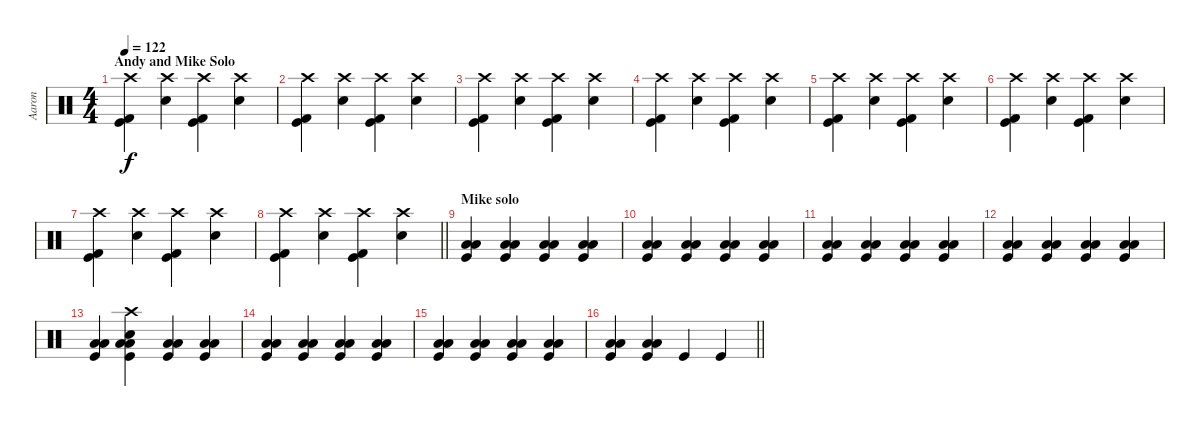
\track ("Aaron" "Aaron") {instrument percussion}
\staff {score}
\articulation defaults
\ts (4 4)
\section ("" "Andy and Mike Solo")
\tempo 122
\clef neutral
\ks c
("Crash high (hit)" "Kick (hit)" "Kick (hit) 2").4{dy f} ("Crash high (hit)" "Snare (hit) 2").4 ("Crash high (hit)" "Kick (hit)" "Kick (hit) 2").4 ("Crash high (hit)" "Snare (hit) 2").4 |
("Crash high (hit)" "Kick (hit)" "Kick (hit) 2").4 ("Crash high (hit)" "Snare (hit) 2").4 ("Crash high (hit)" "Kick (hit)" "Kick (hit) 2").4 ("Crash high (hit)" "Snare (hit) 2").4 |
("Crash high (hit)" "Kick (hit)" "Kick (hit) 2").4 ("Crash high (hit)" "Snare (hit) 2").4 ("Crash high (hit)" "Kick (hit)" "Kick (hit) 2").4 ("Crash high (hit)" "Snare (hit) 2").4 |
("Crash high (hit)" "Kick (hit)" "Kick (hit) 2").4 ("Crash high (hit)" "Snare (hit) 2").4 ("Crash high (hit)" "Kick (hit)" "Kick (hit) 2").4 ("Crash high (hit)" "Snare (hit) 2").4 |
("Crash high (hit)" "Kick (hit)" "Kick (hit) 2").4 ("Crash high (hit)" "Snare (hit) 2").4 ("Crash high (hit)" "Kick (hit)" "Kick (hit) 2").4 ("Crash high (hit)" "Snare (hit) 2").4 |
("Crash high (hit)" "Kick (hit)" "Kick (hit) 2").4 ("Crash high (hit)" "Snare (hit) 2").4 ("Crash high (hit)" "Kick (hit)" "Kick (hit) 2").4 ("Crash high (hit)" "Snare (hit) 2").4 |
("Crash high (hit)" "Kick (hit)" "Kick (hit) 2").4 ("Crash high (hit)" "Snare (hit) 2").4 ("Crash high (hit)" "Kick (hit)" "Kick (hit) 2").4 ("Crash high (hit)" "Snare (hit) 2").4 |
\barLineRight lightlight
("Crash high (hit)" "Kick (hit)" "Kick (hit) 2").4 ("Crash high (hit)" "Snare (hit) 2").4 ("Crash high (hit)" "Kick (hit)" "Kick (hit) 2").4 ("Crash high (hit)" "Snare (hit) 2").4 |
\section ("" "Mike solo")
("Low Floor Tom (hit)" "Low Floor Tom (hit)" "Kick (hit)").4 ("Low Floor Tom (hit)" "Low Floor Tom (hit)" "Kick (hit)").4 ("Low Floor Tom (hit)" "Low Floor Tom (hit)" "Kick (hit)").4 ("Low Floor Tom (hit)" "Low Floor Tom (hit)" "Kick (hit)").4 |
("Low Floor Tom (hit)" "Low Floor Tom (hit)" "Kick (hit)").4 ("Low Floor Tom (hit)" "Low Floor Tom (hit)" "Kick (hit)").4 ("Low Floor Tom (hit)" "Low Floor Tom (hit)" "Kick (hit)").4 ("Low Floor Tom (hit)" "Low Floor Tom (hit)" "Kick (hit)").4 |
("Low Floor Tom (hit)" "Low Floor Tom (hit)" "Kick (hit)").4 ("Low Floor Tom (hit)" "Low Floor Tom (hit)" "Kick (hit)").4 ("Low Floor Tom (hit)" "Low Floor Tom (hit)" "Kick (hit)").4 ("Low Floor Tom (hit)" "Low Floor Tom (hit)" "Kick (hit)").4 |
("Low Floor Tom (hit)" "Low Floor Tom (hit)" "Kick (hit)").4 ("Low Floor Tom (hit)" "Low Floor Tom (hit)" "Kick (hit)").4 ("Low Floor Tom (hit)" "Low Floor Tom (hit)" "Kick (hit)").4 ("Low Floor Tom (hit)" "Low Floor Tom (hit)" "Kick (hit)").4 |
("Low Floor Tom (hit)" "Low Floor Tom (hit)" "Kick (hit)").4 ("Snare (hit) 2" "Low Floor Tom (hit)" "Low Floor Tom (hit)" "Kick (hit)" "Crash high (hit)").4 ("Low Floor Tom (hit)" "Low Floor Tom (hit)" "Kick (hit)").4 ("Low Floor Tom (hit)" "Low Floor Tom (hit)" "Kick (hit)").4 |
("Low Floor Tom (hit)" "Low Floor Tom (hit)" "Kick (hit)").4 ("Low Floor Tom (hit)" "Low Floor Tom (hit)" "Kick (hit)").4 ("Low Floor Tom (hit)" "Low Floor Tom (hit)" "Kick (hit)").4 ("Low Floor Tom (hit)" "Low Floor Tom (hit)" "Kick (hit)").4 |
("Low Floor Tom (hit)" "Low Floor Tom (hit)" "Kick (hit)").4 ("Low Floor Tom (hit)" "Low Floor Tom (hit)" "Kick (hit)").4 ("Low Floor Tom (hit)" "Low Floor Tom (hit)" "Kick (hit)").4 ("Low Floor Tom (hit)" "Low Floor Tom (hit)" "Kick (hit)").4 |
\barLineRight lightlight
("Low Floor Tom (hit)" "Low Floor Tom (hit)" "Kick (hit)").4 ("Low Floor Tom (hit)" "Low Floor Tom (hit)" "Kick (hit)").4 "Kick (hit)".4 "Kick (hit)".4
